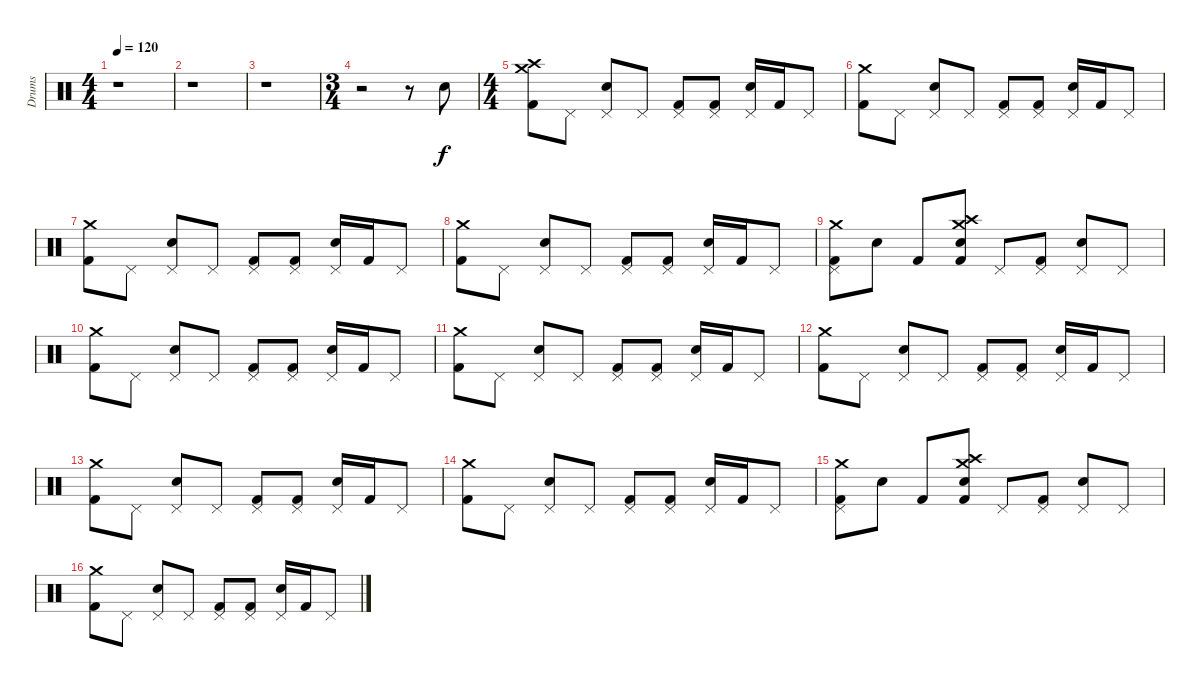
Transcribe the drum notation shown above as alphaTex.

\track ("Drums" "Drums") {instrument percussion}
\staff {score}
\articulation defaults
\ts (4 4)
\tempo 120
\clef neutral
\ks c
r.1{dy f} |
r.1 |
r.1 |
\ts (3 4)
r.2 r.8 "Snare (hit) 2".8 |
\ts (4 4)
("Crash medium (hit)" "Crash high (hit)" "Kick (hit) 2").8 "Pedal Hi-Hat (hit)".8 ("Pedal Hi-Hat (hit)" "Snare (hit) 2").8 "Pedal Hi-Hat (hit)".8 ("Pedal Hi-Hat (hit)" "Kick (hit) 2").8 ("Pedal Hi-Hat (hit)" "Kick (hit) 2").8 ("Pedal Hi-Hat (hit)" "Snare (hit) 2").16 "Kick (hit) 2".16 "Pedal Hi-Hat (hit)".8 |
("Kick (hit) 2" "Crash medium (hit)").8 "Pedal Hi-Hat (hit)".8 ("Pedal Hi-Hat (hit)" "Snare (hit) 2").8 "Pedal Hi-Hat (hit)".8 ("Pedal Hi-Hat (hit)" "Kick (hit) 2").8 ("Pedal Hi-Hat (hit)" "Kick (hit) 2").8 ("Pedal Hi-Hat (hit)" "Snare (hit) 2").16 "Kick (hit) 2".16 "Pedal Hi-Hat (hit)".8 |
("Kick (hit) 2" "Crash medium (hit)").8 "Pedal Hi-Hat (hit)".8 ("Pedal Hi-Hat (hit)" "Snare (hit) 2").8 "Pedal Hi-Hat (hit)".8 ("Pedal Hi-Hat (hit)" "Kick (hit) 2").8 ("Pedal Hi-Hat (hit)" "Kick (hit) 2").8 ("Pedal Hi-Hat (hit)" "Snare (hit) 2").16 "Kick (hit) 2".16 "Pedal Hi-Hat (hit)".8 |
("Kick (hit) 2" "Crash medium (hit)").8 "Pedal Hi-Hat (hit)".8 ("Pedal Hi-Hat (hit)" "Snare (hit) 2").8 "Pedal Hi-Hat (hit)".8 ("Pedal Hi-Hat (hit)" "Kick (hit) 2").8 ("Pedal Hi-Hat (hit)" "Kick (hit) 2").8 ("Pedal Hi-Hat (hit)" "Snare (hit) 2").16 "Kick (hit) 2".16 "Pedal Hi-Hat (hit)".8 |
("Kick (hit) 2" "Crash medium (hit)" "Pedal Hi-Hat (hit)").8 "Snare (hit) 2".8 "Kick (hit) 2".8 ("Snare (hit) 2" "Crash high (hit)" "Crash medium (hit)" "Kick (hit) 2").8 "Pedal Hi-Hat (hit)".8 ("Pedal Hi-Hat (hit)" "Kick (hit) 2").8 ("Pedal Hi-Hat (hit)" "Snare (hit) 2").8 "Pedal Hi-Hat (hit)".8 |
("Kick (hit) 2" "Crash medium (hit)").8 "Pedal Hi-Hat (hit)".8 ("Pedal Hi-Hat (hit)" "Snare (hit) 2").8 "Pedal Hi-Hat (hit)".8 ("Pedal Hi-Hat (hit)" "Kick (hit) 2").8 ("Pedal Hi-Hat (hit)" "Kick (hit) 2").8 ("Pedal Hi-Hat (hit)" "Snare (hit) 2").16 "Kick (hit) 2".16 "Pedal Hi-Hat (hit)".8 |
("Kick (hit) 2" "Crash medium (hit)").8 "Pedal Hi-Hat (hit)".8 ("Pedal Hi-Hat (hit)" "Snare (hit) 2").8 "Pedal Hi-Hat (hit)".8 ("Pedal Hi-Hat (hit)" "Kick (hit) 2").8 ("Pedal Hi-Hat (hit)" "Kick (hit) 2").8 ("Pedal Hi-Hat (hit)" "Snare (hit) 2").16 "Kick (hit) 2".16 "Pedal Hi-Hat (hit)".8 |
("Kick (hit) 2" "Crash medium (hit)").8 "Pedal Hi-Hat (hit)".8 ("Pedal Hi-Hat (hit)" "Snare (hit) 2").8 "Pedal Hi-Hat (hit)".8 ("Pedal Hi-Hat (hit)" "Kick (hit) 2").8 ("Pedal Hi-Hat (hit)" "Kick (hit) 2").8 ("Pedal Hi-Hat (hit)" "Snare (hit) 2").16 "Kick (hit) 2".16 "Pedal Hi-Hat (hit)".8 |
("Kick (hit) 2" "Crash medium (hit)").8 "Pedal Hi-Hat (hit)".8 ("Pedal Hi-Hat (hit)" "Snare (hit) 2").8 "Pedal Hi-Hat (hit)".8 ("Pedal Hi-Hat (hit)" "Kick (hit) 2").8 ("Pedal Hi-Hat (hit)" "Kick (hit) 2").8 ("Pedal Hi-Hat (hit)" "Snare (hit) 2").16 "Kick (hit) 2".16 "Pedal Hi-Hat (hit)".8 |
("Kick (hit) 2" "Crash medium (hit)").8 "Pedal Hi-Hat (hit)".8 ("Pedal Hi-Hat (hit)" "Snare (hit) 2").8 "Pedal Hi-Hat (hit)".8 ("Pedal Hi-Hat (hit)" "Kick (hit) 2").8 ("Pedal Hi-Hat (hit)" "Kick (hit) 2").8 ("Pedal Hi-Hat (hit)" "Snare (hit) 2").16 "Kick (hit) 2".16 "Pedal Hi-Hat (hit)".8 |
("Pedal Hi-Hat (hit)" "Kick (hit) 2" "Crash medium (hit)").8 "Snare (hit) 2".8 "Kick (hit) 2".8 ("Snare (hit) 2" "Kick (hit) 2" "Crash high (hit)" "Crash medium (hit)").8 "Pedal Hi-Hat (hit)".8 ("Kick (hit) 2" "Pedal Hi-Hat (hit)").8 ("Snare (hit) 2" "Pedal Hi-Hat (hit)").8 "Pedal Hi-Hat (hit)".8 |
("Kick (hit) 2" "Crash medium (hit)").8 "Pedal Hi-Hat (hit)".8 ("Pedal Hi-Hat (hit)" "Snare (hit) 2").8 "Pedal Hi-Hat (hit)".8 ("Pedal Hi-Hat (hit)" "Kick (hit) 2").8 ("Pedal Hi-Hat (hit)" "Kick (hit) 2").8 ("Pedal Hi-Hat (hit)" "Snare (hit) 2").16 "Kick (hit) 2".16 "Pedal Hi-Hat (hit)".8
